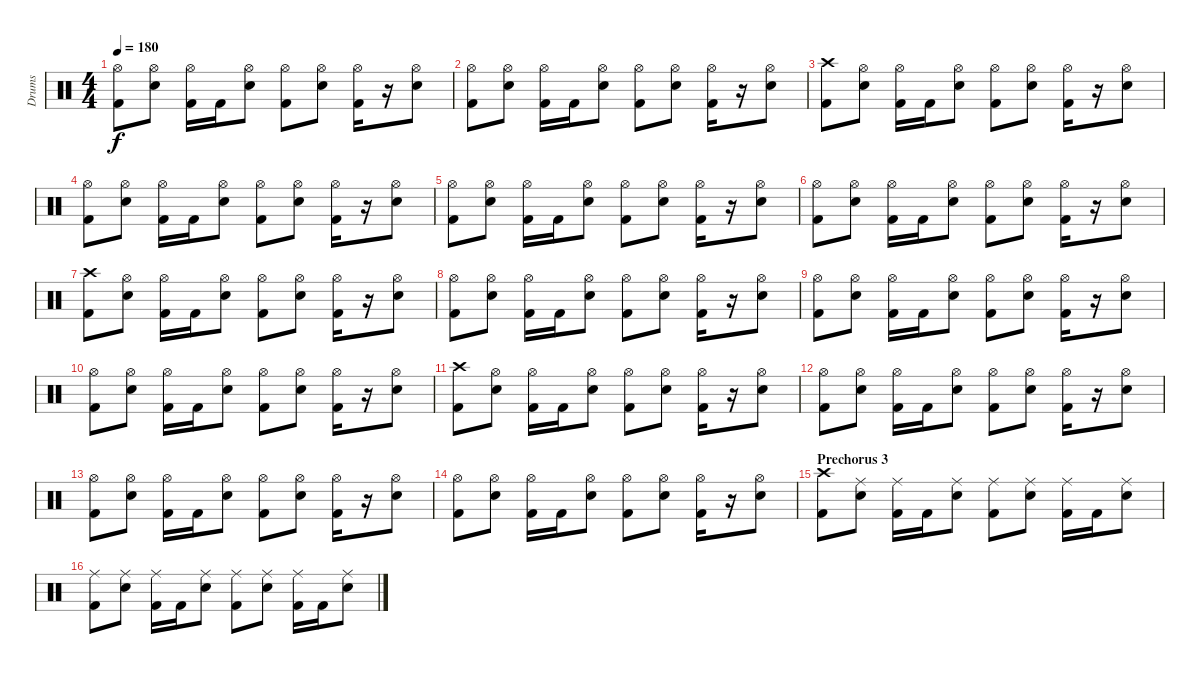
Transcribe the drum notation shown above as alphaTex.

\track ("Drums" "Drums") {instrument percussion}
\staff {score}
\articulation defaults
\ts (4 4)
\tempo 180
\clef neutral
\ks c
("Hi-Hat (open)" "Kick (hit) 2").8{dy f} ("Hi-Hat (open)" "Snare (hit) 2").8 ("Hi-Hat (open)" "Kick (hit) 2").16 "Kick (hit) 2".16 ("Hi-Hat (open)" "Snare (hit) 2").8 ("Hi-Hat (open)" "Kick (hit) 2").8 ("Hi-Hat (open)" "Snare (hit) 2").8 ("Hi-Hat (open)" "Kick (hit) 2").16 r.16 ("Hi-Hat (open)" "Snare (hit) 2").8 |
("Hi-Hat (open)" "Kick (hit) 2").8 ("Hi-Hat (open)" "Snare (hit) 2").8 ("Hi-Hat (open)" "Kick (hit) 2").16 "Kick (hit) 2".16 ("Hi-Hat (open)" "Snare (hit) 2").8 ("Hi-Hat (open)" "Kick (hit) 2").8 ("Hi-Hat (open)" "Snare (hit) 2").8 ("Hi-Hat (open)" "Kick (hit) 2").16 r.16 ("Hi-Hat (open)" "Snare (hit) 2").8 |
("Crash high (hit)" "Kick (hit) 2").8 ("Hi-Hat (open)" "Snare (hit) 2").8 ("Hi-Hat (open)" "Kick (hit) 2").16 "Kick (hit) 2".16 ("Hi-Hat (open)" "Snare (hit) 2").8 ("Hi-Hat (open)" "Kick (hit) 2").8 ("Hi-Hat (open)" "Snare (hit) 2").8 ("Hi-Hat (open)" "Kick (hit) 2").16 r.16 ("Hi-Hat (open)" "Snare (hit) 2").8 |
("Hi-Hat (open)" "Kick (hit) 2").8 ("Hi-Hat (open)" "Snare (hit) 2").8 ("Hi-Hat (open)" "Kick (hit) 2").16 "Kick (hit) 2".16 ("Hi-Hat (open)" "Snare (hit) 2").8 ("Hi-Hat (open)" "Kick (hit) 2").8 ("Hi-Hat (open)" "Snare (hit) 2").8 ("Hi-Hat (open)" "Kick (hit) 2").16 r.16 ("Hi-Hat (open)" "Snare (hit) 2").8 |
("Hi-Hat (open)" "Kick (hit) 2").8 ("Hi-Hat (open)" "Snare (hit) 2").8 ("Hi-Hat (open)" "Kick (hit) 2").16 "Kick (hit) 2".16 ("Hi-Hat (open)" "Snare (hit) 2").8 ("Hi-Hat (open)" "Kick (hit) 2").8 ("Hi-Hat (open)" "Snare (hit) 2").8 ("Hi-Hat (open)" "Kick (hit) 2").16 r.16 ("Hi-Hat (open)" "Snare (hit) 2").8 |
("Hi-Hat (open)" "Kick (hit) 2").8 ("Hi-Hat (open)" "Snare (hit) 2").8 ("Hi-Hat (open)" "Kick (hit) 2").16 "Kick (hit) 2".16 ("Hi-Hat (open)" "Snare (hit) 2").8 ("Hi-Hat (open)" "Kick (hit) 2").8 ("Hi-Hat (open)" "Snare (hit) 2").8 ("Hi-Hat (open)" "Kick (hit) 2").16 r.16 ("Hi-Hat (open)" "Snare (hit) 2").8 |
("Crash high (hit)" "Kick (hit) 2").8 ("Hi-Hat (open)" "Snare (hit) 2").8 ("Hi-Hat (open)" "Kick (hit) 2").16 "Kick (hit) 2".16 ("Hi-Hat (open)" "Snare (hit) 2").8 ("Hi-Hat (open)" "Kick (hit) 2").8 ("Hi-Hat (open)" "Snare (hit) 2").8 ("Hi-Hat (open)" "Kick (hit) 2").16 r.16 ("Hi-Hat (open)" "Snare (hit) 2").8 |
("Hi-Hat (open)" "Kick (hit) 2").8 ("Hi-Hat (open)" "Snare (hit) 2").8 ("Hi-Hat (open)" "Kick (hit) 2").16 "Kick (hit) 2".16 ("Hi-Hat (open)" "Snare (hit) 2").8 ("Hi-Hat (open)" "Kick (hit) 2").8 ("Hi-Hat (open)" "Snare (hit) 2").8 ("Hi-Hat (open)" "Kick (hit) 2").16 r.16 ("Hi-Hat (open)" "Snare (hit) 2").8 |
("Hi-Hat (open)" "Kick (hit) 2").8 ("Hi-Hat (open)" "Snare (hit) 2").8 ("Hi-Hat (open)" "Kick (hit) 2").16 "Kick (hit) 2".16 ("Hi-Hat (open)" "Snare (hit) 2").8 ("Hi-Hat (open)" "Kick (hit) 2").8 ("Hi-Hat (open)" "Snare (hit) 2").8 ("Hi-Hat (open)" "Kick (hit) 2").16 r.16 ("Hi-Hat (open)" "Snare (hit) 2").8 |
("Hi-Hat (open)" "Kick (hit) 2").8 ("Hi-Hat (open)" "Snare (hit) 2").8 ("Hi-Hat (open)" "Kick (hit) 2").16 "Kick (hit) 2".16 ("Hi-Hat (open)" "Snare (hit) 2").8 ("Hi-Hat (open)" "Kick (hit) 2").8 ("Hi-Hat (open)" "Snare (hit) 2").8 ("Hi-Hat (open)" "Kick (hit) 2").16 r.16 ("Hi-Hat (open)" "Snare (hit) 2").8 |
("Crash high (hit)" "Kick (hit) 2").8 ("Hi-Hat (open)" "Snare (hit) 2").8 ("Hi-Hat (open)" "Kick (hit) 2").16 "Kick (hit) 2".16 ("Hi-Hat (open)" "Snare (hit) 2").8 ("Hi-Hat (open)" "Kick (hit) 2").8 ("Hi-Hat (open)" "Snare (hit) 2").8 ("Hi-Hat (open)" "Kick (hit) 2").16 r.16 ("Hi-Hat (open)" "Snare (hit) 2").8 |
("Hi-Hat (open)" "Kick (hit) 2").8 ("Hi-Hat (open)" "Snare (hit) 2").8 ("Hi-Hat (open)" "Kick (hit) 2").16 "Kick (hit) 2".16 ("Hi-Hat (open)" "Snare (hit) 2").8 ("Hi-Hat (open)" "Kick (hit) 2").8 ("Hi-Hat (open)" "Snare (hit) 2").8 ("Hi-Hat (open)" "Kick (hit) 2").16 r.16 ("Hi-Hat (open)" "Snare (hit) 2").8 |
("Hi-Hat (open)" "Kick (hit) 2").8 ("Hi-Hat (open)" "Snare (hit) 2").8 ("Hi-Hat (open)" "Kick (hit) 2").16 "Kick (hit) 2".16 ("Hi-Hat (open)" "Snare (hit) 2").8 ("Hi-Hat (open)" "Kick (hit) 2").8 ("Hi-Hat (open)" "Snare (hit) 2").8 ("Hi-Hat (open)" "Kick (hit) 2").16 r.16 ("Hi-Hat (open)" "Snare (hit) 2").8 |
("Hi-Hat (open)" "Kick (hit) 2").8 ("Hi-Hat (open)" "Snare (hit) 2").8 ("Hi-Hat (open)" "Kick (hit) 2").16 "Kick (hit) 2".16 ("Hi-Hat (open)" "Snare (hit) 2").8 ("Hi-Hat (open)" "Kick (hit) 2").8 ("Hi-Hat (open)" "Snare (hit) 2").8 ("Hi-Hat (open)" "Kick (hit) 2").16 r.16 ("Hi-Hat (open)" "Snare (hit) 2").8 |
\section ("" "Prechorus 3")
("Crash high (hit)" "Kick (hit) 2").8 ("Ride (middle)" "Snare (hit) 2").8 ("Ride (middle)" "Kick (hit) 2").16 "Kick (hit) 2".16 ("Ride (middle)" "Snare (hit) 2").8 ("Ride (middle)" "Kick (hit) 2").8 ("Ride (middle)" "Snare (hit) 2").8 ("Ride (middle)" "Kick (hit) 2").16 "Kick (hit) 2".16 ("Ride (middle)" "Snare (hit) 2").8 |
("Ride (middle)" "Kick (hit) 2").8 ("Ride (middle)" "Snare (hit) 2").8 ("Ride (middle)" "Kick (hit) 2").16 "Kick (hit) 2".16 ("Ride (middle)" "Snare (hit) 2").8 ("Ride (middle)" "Kick (hit) 2").8 ("Ride (middle)" "Snare (hit) 2").8 ("Ride (middle)" "Kick (hit) 2").16 "Kick (hit) 2".16 ("Ride (middle)" "Snare (hit) 2").8
